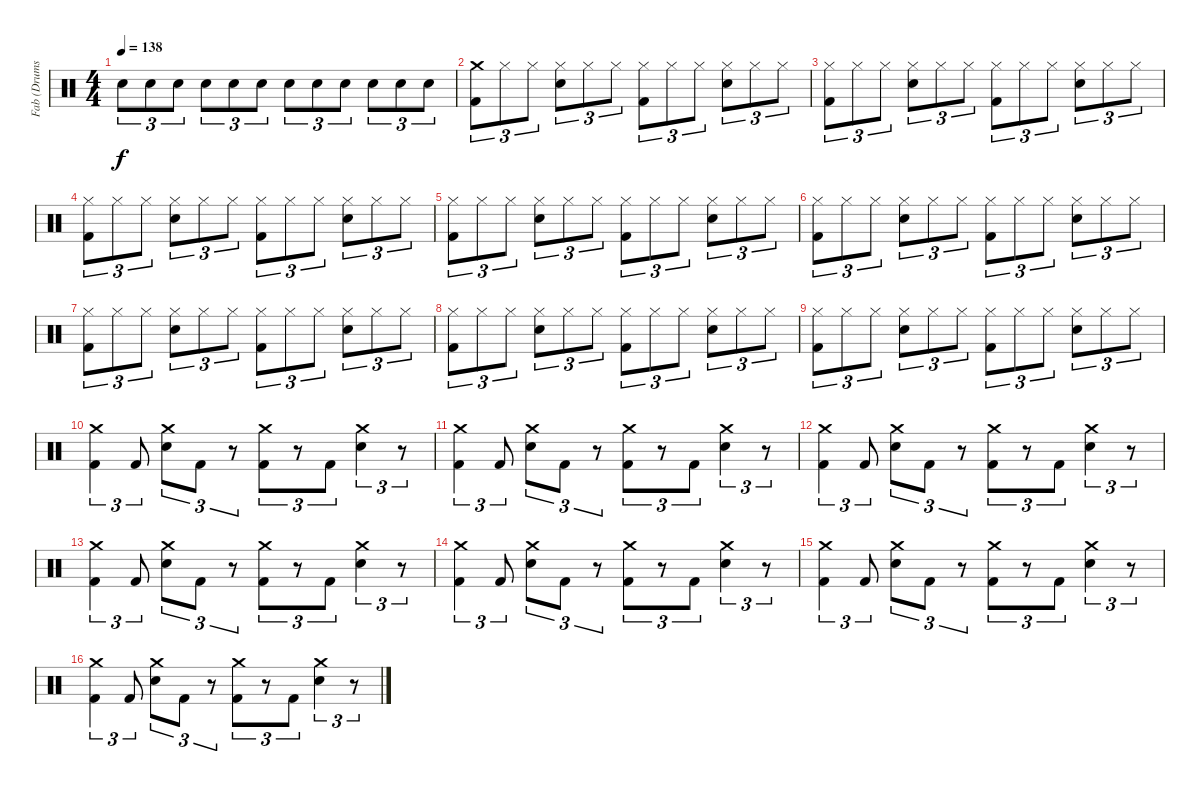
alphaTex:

\track ("Fab (Drums)" "Fab (Drums") {instrument percussion}
\staff {score}
\articulation defaults
\ts (4 4)
\tempo 138
\clef neutral
\ks c "Electric Snare (hit)".8{tu (3 2) dy f} "Electric Snare (hit)".8{tu (3 2)} "Electric Snare (hit)".8{tu (3 2)} "Electric Snare (hit)".8{tu (3 2)} "Electric Snare (hit)".8{tu (3 2)} "Electric Snare (hit)".8{tu (3 2)} "Electric Snare (hit)".8{tu (3 2)} "Electric Snare (hit)".8{tu (3 2)} "Electric Snare (hit)".8{tu (3 2)} "Electric Snare (hit)".8{tu (3 2)} "Electric Snare (hit)".8{tu (3 2)} "Electric Snare (hit)".8{tu (3 2)}
|
("Crash medium (hit)" "Kick (hit) 2").8{tu (3 2)} "Hi-Hat (closed)".8{tu (3 2)} "Hi-Hat (closed)".8{tu (3 2)} ("Hi-Hat (closed)" "Electric Snare (hit)").8{tu (3 2)} "Hi-Hat (closed)".8{tu (3 2)} "Hi-Hat (closed)".8{tu (3 2)} ("Hi-Hat (closed)" "Kick (hit) 2").8{tu (3 2)} "Hi-Hat (closed)".8{tu (3 2)} "Hi-Hat (closed)".8{tu (3 2)} ("Hi-Hat (closed)" "Electric Snare (hit)").8{tu (3 2)} "Hi-Hat (closed)".8{tu (3 2)} "Hi-Hat (closed)".8{tu (3 2)} |
("Hi-Hat (closed)" "Kick (hit) 2").8{tu (3 2)} "Hi-Hat (closed)".8{tu (3 2)} "Hi-Hat (closed)".8{tu (3 2)} ("Hi-Hat (closed)" "Electric Snare (hit)").8{tu (3 2)} "Hi-Hat (closed)".8{tu (3 2)} "Hi-Hat (closed)".8{tu (3 2)} ("Hi-Hat (closed)" "Kick (hit) 2").8{tu (3 2)} "Hi-Hat (closed)".8{tu (3 2)} "Hi-Hat (closed)".8{tu (3 2)} ("Hi-Hat (closed)" "Electric Snare (hit)").8{tu (3 2)} "Hi-Hat (closed)".8{tu (3 2)} "Hi-Hat (closed)".8{tu (3 2)} |
("Hi-Hat (closed)" "Kick (hit) 2").8{tu (3 2)} "Hi-Hat (closed)".8{tu (3 2)} "Hi-Hat (closed)".8{tu (3 2)} ("Hi-Hat (closed)" "Electric Snare (hit)").8{tu (3 2)} "Hi-Hat (closed)".8{tu (3 2)} "Hi-Hat (closed)".8{tu (3 2)} ("Hi-Hat (closed)" "Kick (hit) 2").8{tu (3 2)} "Hi-Hat (closed)".8{tu (3 2)} "Hi-Hat (closed)".8{tu (3 2)} ("Hi-Hat (closed)" "Electric Snare (hit)").8{tu (3 2)} "Hi-Hat (closed)".8{tu (3 2)} "Hi-Hat (closed)".8{tu (3 2)} |
("Hi-Hat (closed)" "Kick (hit) 2").8{tu (3 2)} "Hi-Hat (closed)".8{tu (3 2)} "Hi-Hat (closed)".8{tu (3 2)} ("Hi-Hat (closed)" "Electric Snare (hit)").8{tu (3 2)} "Hi-Hat (closed)".8{tu (3 2)} "Hi-Hat (closed)".8{tu (3 2)} ("Hi-Hat (closed)" "Kick (hit) 2").8{tu (3 2)} "Hi-Hat (closed)".8{tu (3 2)} "Hi-Hat (closed)".8{tu (3 2)} ("Hi-Hat (closed)" "Electric Snare (hit)").8{tu (3 2)} "Hi-Hat (closed)".8{tu (3 2)} "Hi-Hat (closed)".8{tu (3 2)} |
("Hi-Hat (closed)" "Kick (hit) 2").8{tu (3 2)} "Hi-Hat (closed)".8{tu (3 2)} "Hi-Hat (closed)".8{tu (3 2)} ("Hi-Hat (closed)" "Electric Snare (hit)").8{tu (3 2)} "Hi-Hat (closed)".8{tu (3 2)} "Hi-Hat (closed)".8{tu (3 2)} ("Hi-Hat (closed)" "Kick (hit) 2").8{tu (3 2)} "Hi-Hat (closed)".8{tu (3 2)} "Hi-Hat (closed)".8{tu (3 2)} ("Hi-Hat (closed)" "Electric Snare (hit)").8{tu (3 2)} "Hi-Hat (closed)".8{tu (3 2)} "Hi-Hat (closed)".8{tu (3 2)} |
("Hi-Hat (closed)" "Kick (hit) 2").8{tu (3 2)} "Hi-Hat (closed)".8{tu (3 2)} "Hi-Hat (closed)".8{tu (3 2)} ("Hi-Hat (closed)" "Electric Snare (hit)").8{tu (3 2)} "Hi-Hat (closed)".8{tu (3 2)} "Hi-Hat (closed)".8{tu (3 2)} ("Hi-Hat (closed)" "Kick (hit) 2").8{tu (3 2)} "Hi-Hat (closed)".8{tu (3 2)} "Hi-Hat (closed)".8{tu (3 2)} ("Hi-Hat (closed)" "Electric Snare (hit)").8{tu (3 2)} "Hi-Hat (closed)".8{tu (3 2)} "Hi-Hat (closed)".8{tu (3 2)} |
("Hi-Hat (closed)" "Kick (hit) 2").8{tu (3 2)} "Hi-Hat (closed)".8{tu (3 2)} "Hi-Hat (closed)".8{tu (3 2)} ("Hi-Hat (closed)" "Electric Snare (hit)").8{tu (3 2)} "Hi-Hat (closed)".8{tu (3 2)} "Hi-Hat (closed)".8{tu (3 2)} ("Hi-Hat (closed)" "Kick (hit) 2").8{tu (3 2)} "Hi-Hat (closed)".8{tu (3 2)} "Hi-Hat (closed)".8{tu (3 2)} ("Hi-Hat (closed)" "Electric Snare (hit)").8{tu (3 2)} "Hi-Hat (closed)".8{tu (3 2)} "Hi-Hat (closed)".8{tu (3 2)} |
("Hi-Hat (closed)" "Kick (hit) 2").8{tu (3 2)} "Hi-Hat (closed)".8{tu (3 2)} "Hi-Hat (closed)".8{tu (3 2)} ("Hi-Hat (closed)" "Electric Snare (hit)").8{tu (3 2)} "Hi-Hat (closed)".8{tu (3 2)} "Hi-Hat (closed)".8{tu (3 2)} ("Hi-Hat (closed)" "Kick (hit) 2").8{tu (3 2)} "Hi-Hat (closed)".8{tu (3 2)} "Hi-Hat (closed)".8{tu (3 2)} ("Hi-Hat (closed)" "Electric Snare (hit)").8{tu (3 2)} "Hi-Hat (closed)".8{tu (3 2)} "Hi-Hat (closed)".8{tu (3 2)} |
("Crash medium (hit)" "Kick (hit) 2").4{tu (3 2)} "Kick (hit) 2".8{tu (3 2)} ("Crash medium (hit)" "Electric Snare (hit)").8{tu (3 2)} "Kick (hit) 2".8{tu (3 2)} r.8{tu (3 2)} ("Crash medium (hit)" "Kick (hit) 2").8{tu (3 2)} r.8{tu (3 2)} "Kick (hit) 2".8{tu (3 2)} ("Crash medium (hit)" "Electric Snare (hit)").4{tu (3 2)} r.8{tu (3 2)} |
("Crash medium (hit)" "Kick (hit) 2").4{tu (3 2)} "Kick (hit) 2".8{tu (3 2)} ("Crash medium (hit)" "Electric Snare (hit)").8{tu (3 2)} "Kick (hit) 2".8{tu (3 2)} r.8{tu (3 2)} ("Crash medium (hit)" "Kick (hit) 2").8{tu (3 2)} r.8{tu (3 2)} "Kick (hit) 2".8{tu (3 2)} ("Crash medium (hit)" "Electric Snare (hit)").4{tu (3 2)} r.8{tu (3 2)} |
("Crash medium (hit)" "Kick (hit) 2").4{tu (3 2)} "Kick (hit) 2".8{tu (3 2)} ("Crash medium (hit)" "Electric Snare (hit)").8{tu (3 2)} "Kick (hit) 2".8{tu (3 2)} r.8{tu (3 2)} ("Crash medium (hit)" "Kick (hit) 2").8{tu (3 2)} r.8{tu (3 2)} "Kick (hit) 2".8{tu (3 2)} ("Crash medium (hit)" "Electric Snare (hit)").4{tu (3 2)} r.8{tu (3 2)} |
("Crash medium (hit)" "Kick (hit) 2").4{tu (3 2)} "Kick (hit) 2".8{tu (3 2)} ("Crash medium (hit)" "Electric Snare (hit)").8{tu (3 2)} "Kick (hit) 2".8{tu (3 2)} r.8{tu (3 2)} ("Crash medium (hit)" "Kick (hit) 2").8{tu (3 2)} r.8{tu (3 2)} "Kick (hit) 2".8{tu (3 2)} ("Crash medium (hit)" "Electric Snare (hit)").4{tu (3 2)} r.8{tu (3 2)} |
("Crash medium (hit)" "Kick (hit) 2").4{tu (3 2)} "Kick (hit) 2".8{tu (3 2)} ("Crash medium (hit)" "Electric Snare (hit)").8{tu (3 2)} "Kick (hit) 2".8{tu (3 2)} r.8{tu (3 2)} ("Crash medium (hit)" "Kick (hit) 2").8{tu (3 2)} r.8{tu (3 2)} "Kick (hit) 2".8{tu (3 2)} ("Crash medium (hit)" "Electric Snare (hit)").4{tu (3 2)} r.8{tu (3 2)} |
("Crash medium (hit)" "Kick (hit) 2").4{tu (3 2)} "Kick (hit) 2".8{tu (3 2)} ("Crash medium (hit)" "Electric Snare (hit)").8{tu (3 2)} "Kick (hit) 2".8{tu (3 2)} r.8{tu (3 2)} ("Crash medium (hit)" "Kick (hit) 2").8{tu (3 2)} r.8{tu (3 2)} "Kick (hit) 2".8{tu (3 2)} ("Crash medium (hit)" "Electric Snare (hit)").4{tu (3 2)} r.8{tu (3 2)} |
("Crash medium (hit)" "Kick (hit) 2").4{tu (3 2)} "Kick (hit) 2".8{tu (3 2)} ("Crash medium (hit)" "Electric Snare (hit)").8{tu (3 2)} "Kick (hit) 2".8{tu (3 2)} r.8{tu (3 2)} ("Crash medium (hit)" "Kick (hit) 2").8{tu (3 2)} r.8{tu (3 2)} "Kick (hit) 2".8{tu (3 2)} ("Crash medium (hit)" "Electric Snare (hit)").4{tu (3 2)} r.8{tu (3 2)}
